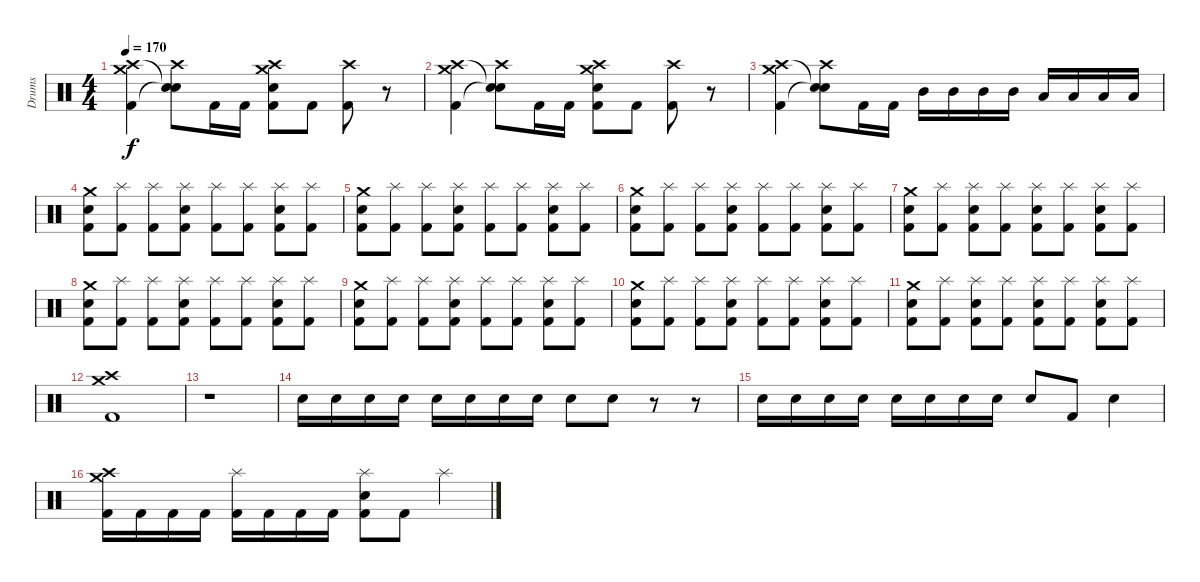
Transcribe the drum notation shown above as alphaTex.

\track ("Drums" "Drums") {instrument percussion}
\staff {score}
\articulation defaults
\ts (4 4)
\tempo 170
\clef neutral
\ks c
("Crash medium (hit)" "Crash high (hit)" "Kick (hit) 2").4{dy f} ("Crash high (hit)" "Snare (hit)"{t} "Snare (hit)"{t}).8 "Kick (hit) 2".16 "Kick (hit) 2".16 ("Crash high (hit)" "Snare (hit) 2" "Crash medium (hit)" "Kick (hit) 2").8 "Kick (hit) 2".8 ("Crash high (hit)" "Kick (hit) 2").8 r.8 |
("Crash medium (hit)" "Crash high (hit)" "Kick (hit) 2").4 ("Crash high (hit)" "Snare (hit)"{t} "Snare (hit)"{t}).8 "Kick (hit) 2".16 "Kick (hit) 2".16 ("Crash high (hit)" "Snare (hit) 2" "Crash medium (hit)" "Kick (hit) 2").8 "Kick (hit) 2".8 ("Crash high (hit)" "Kick (hit) 2").8 r.8 |
("Crash medium (hit)" "Crash high (hit)" "Kick (hit) 2").4 ("Crash high (hit)" "Snare (hit)"{t} "Snare (hit)"{t}).8 "Kick (hit) 2".16 "Kick (hit) 2".16 "Mid Tom (hit)".16 "Mid Tom (hit)".16 "Mid Tom (hit)".16 "Mid Tom (hit)".16 "Low Tom (hit)".16 "Low Tom (hit)".16 "Low Tom (hit)".16 "Low Tom (hit)".16 |
("Crash medium (hit)" "Snare (hit) 2" "Kick (hit) 2").8 ("Splash (hit)" "Kick (hit) 2").8 ("Splash (hit)" "Kick (hit) 2").8 ("Splash (hit)" "Snare (hit) 2" "Kick (hit) 2").8 ("Splash (hit)" "Kick (hit) 2").8 ("Splash (hit)" "Kick (hit) 2").8 ("Splash (hit)" "Snare (hit) 2" "Kick (hit) 2").8 ("Splash (hit)" "Kick (hit) 2").8 |
("Crash medium (hit)" "Snare (hit) 2" "Kick (hit) 2").8 ("Splash (hit)" "Kick (hit) 2").8 ("Splash (hit)" "Kick (hit) 2").8 ("Splash (hit)" "Snare (hit) 2" "Kick (hit) 2").8 ("Splash (hit)" "Kick (hit) 2").8 ("Splash (hit)" "Kick (hit) 2").8 ("Splash (hit)" "Snare (hit) 2" "Kick (hit) 2").8 ("Splash (hit)" "Kick (hit) 2").8 |
("Crash medium (hit)" "Snare (hit) 2" "Kick (hit) 2").8 ("Splash (hit)" "Kick (hit) 2").8 ("Splash (hit)" "Kick (hit) 2").8 ("Splash (hit)" "Snare (hit) 2" "Kick (hit) 2").8 ("Splash (hit)" "Kick (hit) 2").8 ("Splash (hit)" "Kick (hit) 2").8 ("Splash (hit)" "Snare (hit) 2" "Kick (hit) 2").8 ("Splash (hit)" "Kick (hit) 2").8 |
("Crash medium (hit)" "Snare (hit) 2" "Kick (hit) 2").8 ("Splash (hit)" "Kick (hit) 2").8 ("Splash (hit)" "Snare (hit) 2" "Kick (hit) 2").8 ("Splash (hit)" "Kick (hit) 2").8 ("Splash (hit)" "Snare (hit) 2" "Kick (hit) 2").8 ("Splash (hit)" "Kick (hit) 2").8 ("Splash (hit)" "Snare (hit) 2" "Kick (hit) 2").8 ("Splash (hit)" "Kick (hit) 2").8 |
("Crash medium (hit)" "Snare (hit) 2" "Kick (hit) 2").8 ("Splash (hit)" "Kick (hit) 2").8 ("Splash (hit)" "Kick (hit) 2").8 ("Splash (hit)" "Snare (hit) 2" "Kick (hit) 2").8 ("Splash (hit)" "Kick (hit) 2").8 ("Splash (hit)" "Kick (hit) 2").8 ("Splash (hit)" "Snare (hit) 2" "Kick (hit) 2").8 ("Splash (hit)" "Kick (hit) 2").8 |
("Crash medium (hit)" "Snare (hit) 2" "Kick (hit) 2").8 ("Splash (hit)" "Kick (hit) 2").8 ("Splash (hit)" "Kick (hit) 2").8 ("Splash (hit)" "Snare (hit) 2" "Kick (hit) 2").8 ("Splash (hit)" "Kick (hit) 2").8 ("Splash (hit)" "Kick (hit) 2").8 ("Splash (hit)" "Snare (hit) 2" "Kick (hit) 2").8 ("Splash (hit)" "Kick (hit) 2").8 |
("Crash medium (hit)" "Snare (hit) 2" "Kick (hit) 2").8 ("Splash (hit)" "Kick (hit) 2").8 ("Splash (hit)" "Kick (hit) 2").8 ("Splash (hit)" "Snare (hit) 2" "Kick (hit) 2").8 ("Splash (hit)" "Kick (hit) 2").8 ("Splash (hit)" "Kick (hit) 2").8 ("Splash (hit)" "Snare (hit) 2" "Kick (hit) 2").8 ("Splash (hit)" "Kick (hit) 2").8 |
("Crash medium (hit)" "Snare (hit) 2" "Kick (hit) 2").8 ("Splash (hit)" "Kick (hit) 2").8 ("Splash (hit)" "Snare (hit) 2" "Kick (hit) 2").8 ("Splash (hit)" "Kick (hit) 2").8 ("Splash (hit)" "Snare (hit) 2" "Kick (hit) 2").8 ("Splash (hit)" "Kick (hit) 2").8 ("Splash (hit)" "Snare (hit) 2" "Kick (hit) 2").8 ("Splash (hit)" "Kick (hit) 2").8 |
("Crash high (hit)" "Crash medium (hit)" "Kick (hit) 2").1 |
r.1 |
"Snare (hit) 2".16 "Snare (hit) 2".16 "Snare (hit) 2".16 "Snare (hit) 2".16 "Snare (hit) 2".16 "Snare (hit) 2".16 "Snare (hit) 2".16 "Snare (hit) 2".16 "Snare (hit) 2".8 "Snare (hit) 2".8 r.8 r.8 |
"Snare (hit) 2".16 "Snare (hit) 2".16 "Snare (hit) 2".16 "Snare (hit) 2".16 "Snare (hit) 2".16 "Snare (hit) 2".16 "Snare (hit) 2".16 "Snare (hit) 2".16 "Snare (hit) 2".8 "Kick (hit) 2".8 "Snare (hit) 2".4 |
("Crash medium (hit)" "Crash high (hit)" "Kick (hit) 2").16 "Kick (hit) 2".16 "Kick (hit) 2".16 "Kick (hit) 2".16 ("Splash (hit)" "Kick (hit) 2").16 "Kick (hit) 2".16 "Kick (hit) 2".16 "Kick (hit) 2".16 ("Splash (hit)" "Snare (hit) 2" "Kick (hit) 2").8 "Kick (hit) 2".8 "Splash (hit)".4
